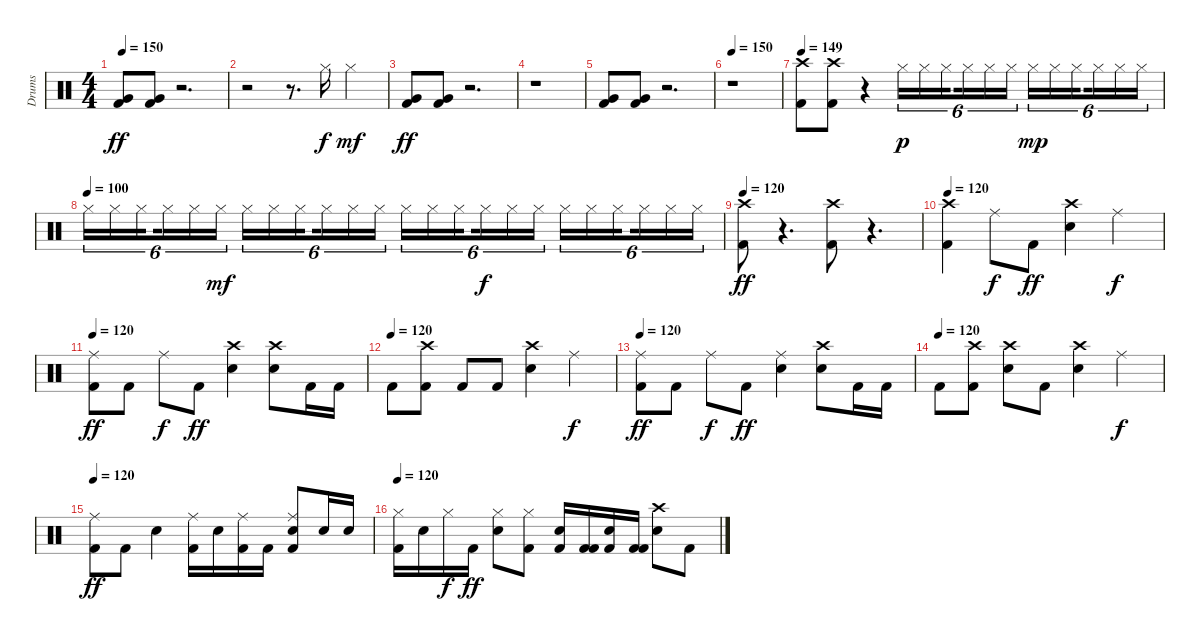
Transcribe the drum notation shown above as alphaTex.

\track ("Drums" "Drums") {instrument percussion}
\staff {score}
\articulation defaults
\ts (4 4)
\tempo 150
\clef neutral
\ks c
("Very Low Tom (hit)" "Kick (hit) 2").8{dy ff} ("Very Low Tom (hit)" "Kick (hit) 2").8 r.2{d} |
r.2 r.8{d} "Hi-Hat (closed)".16{dy f} "Hi-Hat (closed)".4{dy mf} |
("Very Low Tom (hit)" "Kick (hit) 2").8{dy ff} ("Very Low Tom (hit)" "Kick (hit) 2").8 r.2{d} |
r.1 |
("Very Low Tom (hit)" "Kick (hit) 2").8 ("Very Low Tom (hit)" "Kick (hit) 2").8 r.2{d} |
\tempo 150
r.1 |
\tempo 149
("Crash high (hit)" "Kick (hit) 2").8 ("Crash high (hit)" "Kick (hit) 2").8 r.4 "Hi-Hat (closed)".16{tu (6 4) dy p} "Hi-Hat (closed)".16{tu (6 4)} "Hi-Hat (closed)".16{tu (6 4) beam splitsecondary} "Hi-Hat (closed)".16{tu (6 4)} "Hi-Hat (closed)".16{tu (6 4)} "Hi-Hat (closed)".16{tu (6 4)} "Hi-Hat (closed)".16{tu (6 4) dy mp} "Hi-Hat (closed)".16{tu (6 4)} "Hi-Hat (closed)".16{tu (6 4) beam splitsecondary} "Hi-Hat (closed)".16{tu (6 4)} "Hi-Hat (closed)".16{tu (6 4)} "Hi-Hat (closed)".16{tu (6 4)} |
\tempo (100)
"Hi-Hat (closed)".16{tu (6 4)} "Hi-Hat (closed)".16{tu (6 4)} "Hi-Hat (closed)".16{tu (6 4) beam splitsecondary} "Hi-Hat (closed)".16{tu (6 4)} "Hi-Hat (closed)".16{tu (6 4)} "Hi-Hat (closed)".16{tu (6 4) dy mf} "Hi-Hat (closed)".16{tu (6 4)} "Hi-Hat (closed)".16{tu (6 4)} "Hi-Hat (closed)".16{tu (6 4) beam splitsecondary} "Hi-Hat (closed)".16{tu (6 4)} "Hi-Hat (closed)".16{tu (6 4)} "Hi-Hat (closed)".16{tu (6 4)} "Hi-Hat (closed)".16{tu (6 4)} "Hi-Hat (closed)".16{tu (6 4)} "Hi-Hat (closed)".16{tu (6 4) beam splitsecondary} "Hi-Hat (closed)".16{tu (6 4) dy f} "Hi-Hat (closed)".16{tu (6 4)} "Hi-Hat (closed)".16{tu (6 4)} "Hi-Hat (closed)".16{tu (6 4)} "Hi-Hat (closed)".16{tu (6 4)} "Hi-Hat (closed)".16{tu (6 4) beam splitsecondary} "Hi-Hat (closed)".16{tu (6 4)} "Hi-Hat (closed)".16{tu (6 4)} "Hi-Hat (closed)".16{tu (6 4)} |
\tempo 120
("Crash high (hit)" "Kick (hit) 2").8{dy ff} r.4{d} ("Crash high (hit)" "Kick (hit) 2").8 r.4{d} |
\tempo 120
("Crash high (hit)" "Kick (hit) 2").4 "Ride (middle)".8{dy f} "Kick (hit) 2".8{dy ff} ("Crash high (hit)" "Snare (hit) 2").4 "Ride (middle)".4{dy f} |
\tempo 120
("Kick (hit) 2" "Ride (middle)").8{dy ff} "Kick (hit) 2".8 "Ride (middle)".8{dy f} "Kick (hit) 2".8{dy ff} ("Snare (hit) 2" "Crash high (hit)").4 ("Snare (hit) 2" "Crash high (hit)").8 "Kick (hit) 2".16 "Kick (hit) 2".16 |
\tempo (120)
"Kick (hit) 2".8 ("Crash high (hit)" "Kick (hit) 2").8 "Kick (hit) 2".8 "Kick (hit) 2".8 ("Snare (hit) 2" "Crash high (hit)").4 "Ride (middle)".4{dy f} |
\tempo 120
("Kick (hit) 2" "Ride (middle)").8{dy ff} "Kick (hit) 2".8 "Ride (middle)".8{dy f} "Kick (hit) 2".8{dy ff} ("Ride (middle)" "Snare (hit) 2").4 ("Snare (hit) 2" "Crash high (hit)").8 "Kick (hit) 2".16 "Kick (hit) 2".16 |
\tempo (120)
"Kick (hit) 2".8 ("Crash high (hit)" "Kick (hit) 2").8 ("Crash high (hit)" "Snare (hit) 2").8 "Kick (hit) 2".8 ("Crash high (hit)" "Snare (hit) 2").4 "Ride (middle)".4{dy f} |
\tempo 120
("Ride (middle)" "Kick (hit) 2").8{dy ff} "Kick (hit) 2".8 "Snare (hit) 2".4 ("Ride (middle)" "Kick (hit) 2").16 "Snare (hit) 2".16 ("Ride (middle)" "Kick (hit) 2").16 "Kick (hit) 2".16 ("Kick (hit) 2" "Ride (middle)" "Snare (hit) 2").8 "Snare (hit) 2".16 "Snare (hit) 2".16 |
\tempo 120
("Hi-Hat (closed)" "Kick (hit) 2").16 "Snare (hit) 2".16 "Hi-Hat (closed)".16{dy f} "Kick (hit) 2".16{dy ff} ("Hi-Hat (closed)" "Snare (hit) 2").8 ("Hi-Hat (closed)" "Kick (hit) 2").8 ("Snare (hit) 2" "Kick (hit) 2").16 ("Kick (hit) 2" "Kick (hit) 2").16 ("Snare (hit) 2" "Kick (hit) 2").16 ("Kick (hit) 2" "Kick (hit) 2").16 ("Crash high (hit)" "Snare (hit) 2").8 "Kick (hit) 2".8
